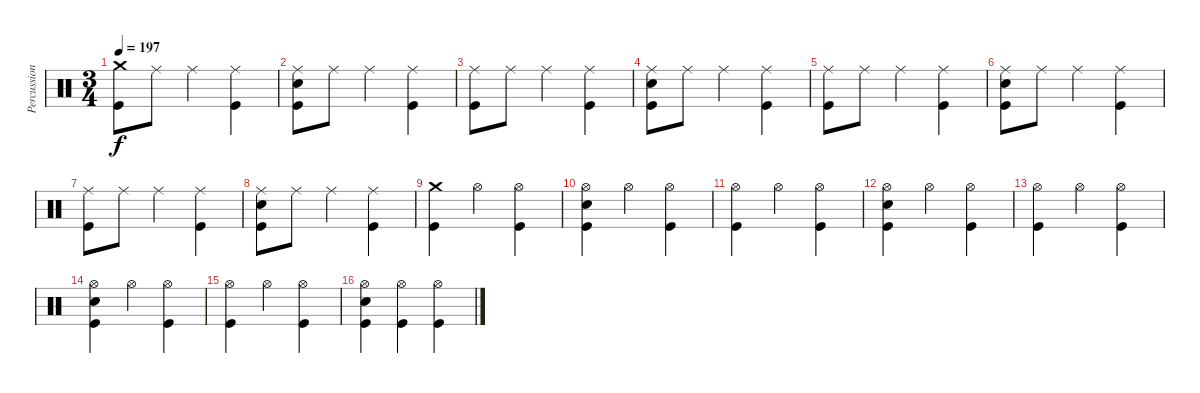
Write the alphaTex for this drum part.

\track ("Percussion" "Percussion") {instrument percussion}
\staff {score}
\articulation defaults
\ts (3 4)
\tempo 197
\clef neutral
\ks c
("Crash medium (hit)" "Kick (hit)").8{dy f} "Ride (middle)".8 "Ride (middle)".4 ("Ride (middle)" "Kick (hit)").4 |
("Ride (middle)" "Electric Snare (hit)" "Kick (hit)").8 "Ride (middle)".8 "Ride (middle)".4 ("Ride (middle)" "Kick (hit)").4 |
("Ride (middle)" "Kick (hit)").8 "Ride (middle)".8 "Ride (middle)".4 ("Ride (middle)" "Kick (hit)").4 |
("Ride (middle)" "Electric Snare (hit)" "Kick (hit)").8 "Ride (middle)".8 "Ride (middle)".4 ("Ride (middle)" "Kick (hit)").4 |
("Ride (middle)" "Kick (hit)").8 "Ride (middle)".8 "Ride (middle)".4 ("Ride (middle)" "Kick (hit)").4 |
("Ride (middle)" "Electric Snare (hit)" "Kick (hit)").8 "Ride (middle)".8 "Ride (middle)".4 ("Ride (middle)" "Kick (hit)").4 |
("Ride (middle)" "Kick (hit)").8 "Ride (middle)".8 "Ride (middle)".4 ("Ride (middle)" "Kick (hit)").4 |
("Ride (middle)" "Electric Snare (hit)" "Kick (hit)").8 "Ride (middle)".8 "Ride (middle)".4 ("Ride (middle)" "Kick (hit)").4 |
("Crash medium (hit)" "Kick (hit)").4 "Hi-Hat (open)".4 ("Hi-Hat (open)" "Kick (hit)").4 |
("Hi-Hat (open)" "Electric Snare (hit)" "Kick (hit)").4 "Hi-Hat (open)".4 ("Hi-Hat (open)" "Kick (hit)").4 |
("Hi-Hat (open)" "Kick (hit)").4 "Hi-Hat (open)".4 ("Hi-Hat (open)" "Kick (hit)").4 |
("Hi-Hat (open)" "Electric Snare (hit)" "Kick (hit)").4 "Hi-Hat (open)".4 ("Hi-Hat (open)" "Kick (hit)").4 |
("Hi-Hat (open)" "Kick (hit)").4 "Hi-Hat (open)".4 ("Hi-Hat (open)" "Kick (hit)").4 |
("Hi-Hat (open)" "Electric Snare (hit)" "Kick (hit)").4 "Hi-Hat (open)".4 ("Hi-Hat (open)" "Kick (hit)").4 |
("Hi-Hat (open)" "Kick (hit)").4 "Hi-Hat (open)".4 ("Hi-Hat (open)" "Kick (hit)").4 |
("Hi-Hat (open)" "Electric Snare (hit)" "Kick (hit)").4 ("Hi-Hat (open)" "Kick (hit)").4 ("Hi-Hat (open)" "Kick (hit)").4
